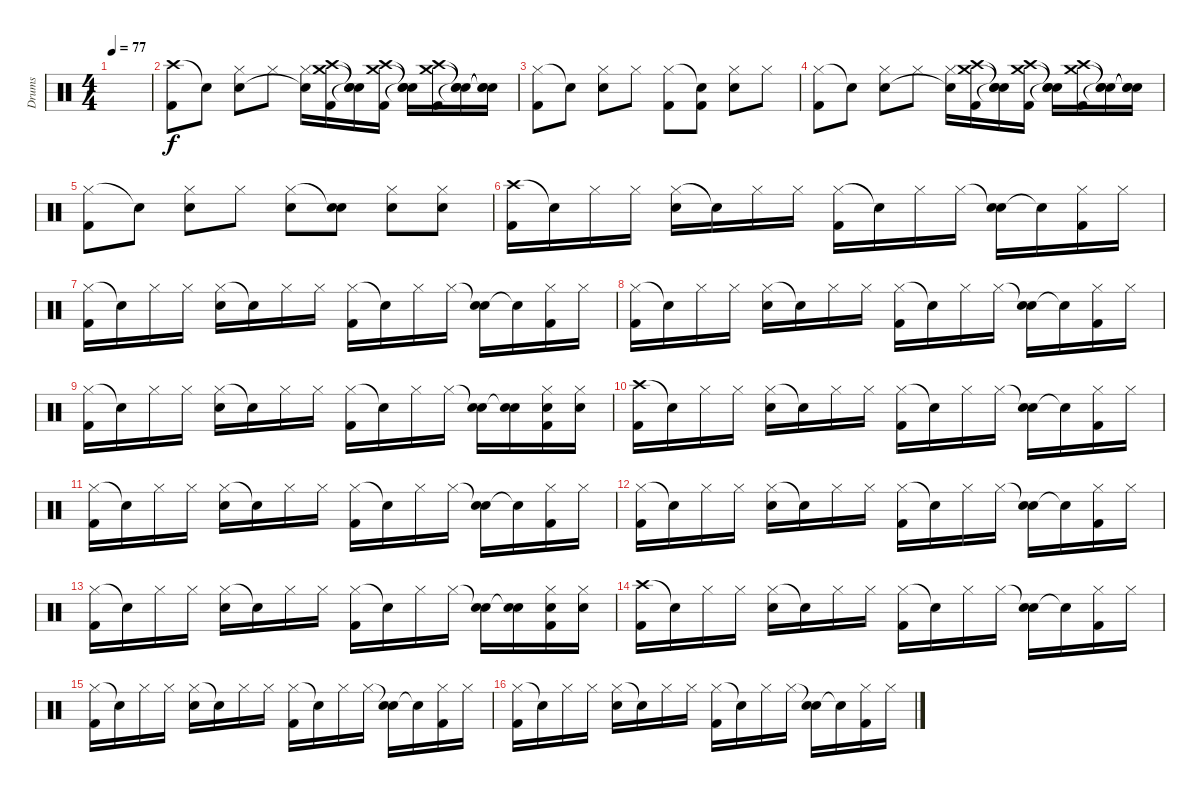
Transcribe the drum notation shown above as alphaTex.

\track ("Drums" "Drums") {instrument percussion}
\staff {score}
\articulation defaults
\ts (4 4)
\tempo 77
\clef neutral
\ks c
|
("Crash high (hit)" "Kick (hit) 2").8 "Snare (hit)"{t}.8 ("Hi-Hat (closed)" "Electric Snare (hit)").8 "Hi-Hat (closed)".8 ("Hi-Hat (closed)" "Snare (hit)"{t}).16 ("Crash high (hit)" "Crash medium (hit)" "Kick (hit) 2").16 ("Snare (hit)"{t} "Snare (hit)"{t} "Snare (hit)"{t}).16 ("Crash high (hit)" "Crash medium (hit)" "Kick (hit) 2").16 ("Snare (hit)"{t} "Snare (hit)"{t} "Snare (hit)"{t}).16 ("Crash high (hit)" "Crash medium (hit)" "Kick (hit) 2").16 ("Snare (hit)"{t} "Snare (hit)"{t} "Snare (hit)"{t}).16 ("Snare (hit)"{t} "Snare (hit)"{t} "Snare (hit)"{t}).16 |
("Hi-Hat (closed)" "Kick (hit) 2").8 "Snare (hit)"{t}.8 ("Hi-Hat (closed)" "Electric Snare (hit)").8 "Hi-Hat (closed)".8 ("Hi-Hat (closed)" "Kick (hit) 2").8 ("Snare (hit)"{t} "Kick (hit) 2").8 ("Hi-Hat (closed)" "Electric Snare (hit)").8 "Hi-Hat (closed)".8 |
("Hi-Hat (closed)" "Kick (hit) 2").8 "Snare (hit)"{t}.8 ("Hi-Hat (closed)" "Electric Snare (hit)").8 "Hi-Hat (closed)".8 ("Hi-Hat (closed)" "Snare (hit)"{t}).16 ("Crash high (hit)" "Crash medium (hit)" "Kick (hit) 2").16 ("Snare (hit)"{t} "Snare (hit)"{t} "Snare (hit)"{t}).16 ("Crash high (hit)" "Crash medium (hit)" "Kick (hit) 2").16 ("Snare (hit)"{t} "Snare (hit)"{t} "Snare (hit)"{t}).16 ("Crash high (hit)" "Crash medium (hit)" "Kick (hit) 2").16 ("Snare (hit)"{t} "Snare (hit)"{t} "Snare (hit)"{t}).16 ("Snare (hit)"{t} "Snare (hit)"{t} "Snare (hit)"{t}).16 |
("Hi-Hat (closed)" "Kick (hit) 2").8 "Snare (hit)"{t}.8 ("Hi-Hat (closed)" "Electric Snare (hit)").8 "Hi-Hat (closed)".8 ("Hi-Hat (closed)" "Electric Snare (hit)").8 ("Snare (hit)"{t} "Electric Snare (hit)").8 ("Hi-Hat (closed)" "Electric Snare (hit)").8 ("Hi-Hat (closed)" "Electric Snare (hit)").8 |
("Crash high (hit)" "Kick (hit) 2").16 "Snare (hit)"{t}.16 "Hi-Hat (closed)".16 "Hi-Hat (closed)".16 ("Hi-Hat (closed)" "Electric Snare (hit)").16 "Snare (hit)"{t}.16 "Hi-Hat (closed)".16 "Hi-Hat (closed)".16 ("Hi-Hat (closed)" "Kick (hit) 2").16 "Snare (hit)"{t}.16 "Hi-Hat (closed)".16 "Hi-Hat (closed)".16 ("Snare (hit)"{t} "Electric Snare (hit)").16 "Snare (hit)"{t}.16 ("Hi-Hat (closed)" "Kick (hit) 2").16 "Hi-Hat (closed)".16 |
("Hi-Hat (closed)" "Kick (hit) 2").16 "Snare (hit)"{t}.16 "Hi-Hat (closed)".16 "Hi-Hat (closed)".16 ("Hi-Hat (closed)" "Electric Snare (hit)").16 "Snare (hit)"{t}.16 "Hi-Hat (closed)".16 "Hi-Hat (closed)".16 ("Hi-Hat (closed)" "Kick (hit) 2").16 "Snare (hit)"{t}.16 "Hi-Hat (closed)".16 "Hi-Hat (closed)".16 ("Snare (hit)"{t} "Electric Snare (hit)").16 "Snare (hit)"{t}.16 ("Hi-Hat (closed)" "Kick (hit) 2").16 "Hi-Hat (closed)".16 |
("Hi-Hat (closed)" "Kick (hit) 2").16 "Snare (hit)"{t}.16 "Hi-Hat (closed)".16 "Hi-Hat (closed)".16 ("Hi-Hat (closed)" "Electric Snare (hit)").16 "Snare (hit)"{t}.16 "Hi-Hat (closed)".16 "Hi-Hat (closed)".16 ("Hi-Hat (closed)" "Kick (hit) 2").16 "Snare (hit)"{t}.16 "Hi-Hat (closed)".16 "Hi-Hat (closed)".16 ("Snare (hit)"{t} "Electric Snare (hit)").16 "Snare (hit)"{t}.16 ("Hi-Hat (closed)" "Kick (hit) 2").16 "Hi-Hat (closed)".16 |
("Hi-Hat (closed)" "Kick (hit) 2").16 "Snare (hit)"{t}.16 "Hi-Hat (closed)".16 "Hi-Hat (closed)".16 ("Hi-Hat (closed)" "Electric Snare (hit)").16 "Snare (hit)"{t}.16 "Hi-Hat (closed)".16 "Hi-Hat (closed)".16 ("Hi-Hat (closed)" "Kick (hit) 2").16 "Snare (hit)"{t}.16 "Hi-Hat (closed)".16 "Hi-Hat (closed)".16 ("Snare (hit)"{t} "Electric Snare (hit)").16 ("Snare (hit)"{t} "Electric Snare (hit)").16 ("Hi-Hat (closed)" "Electric Snare (hit)" "Kick (hit) 2").16 ("Hi-Hat (closed)" "Electric Snare (hit)").16 |
("Crash high (hit)" "Kick (hit) 2").16 "Snare (hit)"{t}.16 "Hi-Hat (closed)".16 "Hi-Hat (closed)".16 ("Hi-Hat (closed)" "Electric Snare (hit)").16 "Snare (hit)"{t}.16 "Hi-Hat (closed)".16 "Hi-Hat (closed)".16 ("Hi-Hat (closed)" "Kick (hit) 2").16 "Snare (hit)"{t}.16 "Hi-Hat (closed)".16 "Hi-Hat (closed)".16 ("Snare (hit)"{t} "Electric Snare (hit)").16 "Snare (hit)"{t}.16 ("Hi-Hat (closed)" "Kick (hit) 2").16 "Hi-Hat (closed)".16 |
("Hi-Hat (closed)" "Kick (hit) 2").16 "Snare (hit)"{t}.16 "Hi-Hat (closed)".16 "Hi-Hat (closed)".16 ("Hi-Hat (closed)" "Electric Snare (hit)").16 "Snare (hit)"{t}.16 "Hi-Hat (closed)".16 "Hi-Hat (closed)".16 ("Hi-Hat (closed)" "Kick (hit) 2").16 "Snare (hit)"{t}.16 "Hi-Hat (closed)".16 "Hi-Hat (closed)".16 ("Snare (hit)"{t} "Electric Snare (hit)").16 "Snare (hit)"{t}.16 ("Hi-Hat (closed)" "Kick (hit) 2").16 "Hi-Hat (closed)".16 |
("Hi-Hat (closed)" "Kick (hit) 2").16 "Snare (hit)"{t}.16 "Hi-Hat (closed)".16 "Hi-Hat (closed)".16 ("Hi-Hat (closed)" "Electric Snare (hit)").16 "Snare (hit)"{t}.16 "Hi-Hat (closed)".16 "Hi-Hat (closed)".16 ("Hi-Hat (closed)" "Kick (hit) 2").16 "Snare (hit)"{t}.16 "Hi-Hat (closed)".16 "Hi-Hat (closed)".16 ("Snare (hit)"{t} "Electric Snare (hit)").16 "Snare (hit)"{t}.16 ("Hi-Hat (closed)" "Kick (hit) 2").16 "Hi-Hat (closed)".16 |
("Hi-Hat (closed)" "Kick (hit) 2").16 "Snare (hit)"{t}.16 "Hi-Hat (closed)".16 "Hi-Hat (closed)".16 ("Hi-Hat (closed)" "Electric Snare (hit)").16 "Snare (hit)"{t}.16 "Hi-Hat (closed)".16 "Hi-Hat (closed)".16 ("Hi-Hat (closed)" "Kick (hit) 2").16 "Snare (hit)"{t}.16 "Hi-Hat (closed)".16 "Hi-Hat (closed)".16 ("Snare (hit)"{t} "Electric Snare (hit)").16 ("Snare (hit)"{t} "Electric Snare (hit)").16 ("Hi-Hat (closed)" "Electric Snare (hit)" "Kick (hit) 2").16 ("Hi-Hat (closed)" "Electric Snare (hit)").16 |
("Crash high (hit)" "Kick (hit) 2").16 "Snare (hit)"{t}.16 "Hi-Hat (closed)".16 "Hi-Hat (closed)".16 ("Hi-Hat (closed)" "Electric Snare (hit)").16 "Snare (hit)"{t}.16 "Hi-Hat (closed)".16 "Hi-Hat (closed)".16 ("Hi-Hat (closed)" "Kick (hit) 2").16 "Snare (hit)"{t}.16 "Hi-Hat (closed)".16 "Hi-Hat (closed)".16 ("Snare (hit)"{t} "Electric Snare (hit)").16 "Snare (hit)"{t}.16 ("Hi-Hat (closed)" "Kick (hit) 2").16 "Hi-Hat (closed)".16 |
("Hi-Hat (closed)" "Kick (hit) 2").16 "Snare (hit)"{t}.16 "Hi-Hat (closed)".16 "Hi-Hat (closed)".16 ("Hi-Hat (closed)" "Electric Snare (hit)").16 "Snare (hit)"{t}.16 "Hi-Hat (closed)".16 "Hi-Hat (closed)".16 ("Hi-Hat (closed)" "Kick (hit) 2").16 "Snare (hit)"{t}.16 "Hi-Hat (closed)".16 "Hi-Hat (closed)".16 ("Snare (hit)"{t} "Electric Snare (hit)").16 "Snare (hit)"{t}.16 ("Hi-Hat (closed)" "Kick (hit) 2").16 "Hi-Hat (closed)".16 |
("Hi-Hat (closed)" "Kick (hit) 2").16 "Snare (hit)"{t}.16 "Hi-Hat (closed)".16 "Hi-Hat (closed)".16 ("Hi-Hat (closed)" "Electric Snare (hit)").16 "Snare (hit)"{t}.16 "Hi-Hat (closed)".16 "Hi-Hat (closed)".16 ("Hi-Hat (closed)" "Kick (hit) 2").16 "Snare (hit)"{t}.16 "Hi-Hat (closed)".16 "Hi-Hat (closed)".16 ("Snare (hit)"{t} "Electric Snare (hit)").16 "Snare (hit)"{t}.16 ("Hi-Hat (closed)" "Kick (hit) 2").16 "Hi-Hat (closed)".16
